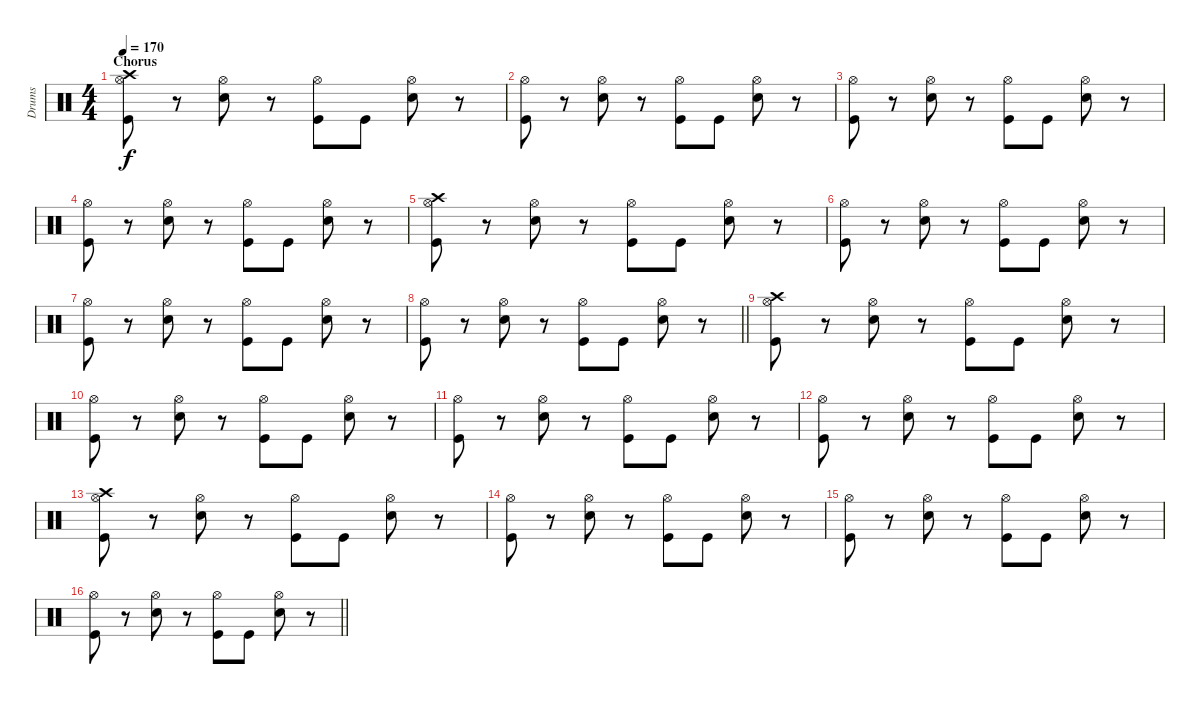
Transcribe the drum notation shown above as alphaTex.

\track ("Drums" "Drums") {instrument percussion}
\staff {score}
\articulation defaults
\ts (4 4)
\section ("" "Chorus")
\tempo 170
\clef neutral
\ks c
("Hi-Hat (open)" "Crash high (hit)" "Kick (hit)").8{dy f} r.8 ("Hi-Hat (open)" "Snare (hit) 2").8 r.8 ("Hi-Hat (open)" "Kick (hit)").8 "Kick (hit)".8 ("Hi-Hat (open)" "Snare (hit) 2").8 r.8 |
("Hi-Hat (open)" "Kick (hit)").8 r.8 ("Hi-Hat (open)" "Snare (hit) 2").8 r.8 ("Hi-Hat (open)" "Kick (hit)").8 "Kick (hit)".8 ("Hi-Hat (open)" "Snare (hit) 2").8 r.8 |
("Hi-Hat (open)" "Kick (hit)").8 r.8 ("Hi-Hat (open)" "Snare (hit) 2").8 r.8 ("Hi-Hat (open)" "Kick (hit)").8 "Kick (hit)".8 ("Hi-Hat (open)" "Snare (hit) 2").8 r.8 |
("Hi-Hat (open)" "Kick (hit)").8 r.8 ("Hi-Hat (open)" "Snare (hit) 2").8 r.8 ("Hi-Hat (open)" "Kick (hit)").8 "Kick (hit)".8 ("Hi-Hat (open)" "Snare (hit) 2").8 r.8 |
("Hi-Hat (open)" "Crash high (hit)" "Kick (hit)").8 r.8 ("Hi-Hat (open)" "Snare (hit) 2").8 r.8 ("Hi-Hat (open)" "Kick (hit)").8 "Kick (hit)".8 ("Hi-Hat (open)" "Snare (hit) 2").8 r.8 |
("Hi-Hat (open)" "Kick (hit)").8 r.8 ("Hi-Hat (open)" "Snare (hit) 2").8 r.8 ("Hi-Hat (open)" "Kick (hit)").8 "Kick (hit)".8 ("Hi-Hat (open)" "Snare (hit) 2").8 r.8 |
("Hi-Hat (open)" "Kick (hit)").8 r.8 ("Hi-Hat (open)" "Snare (hit) 2").8 r.8 ("Hi-Hat (open)" "Kick (hit)").8 "Kick (hit)".8 ("Hi-Hat (open)" "Snare (hit) 2").8 r.8 |
\barLineRight lightlight
("Hi-Hat (open)" "Kick (hit)").8 r.8 ("Hi-Hat (open)" "Snare (hit) 2").8 r.8 ("Hi-Hat (open)" "Kick (hit)").8 "Kick (hit)".8 ("Hi-Hat (open)" "Snare (hit) 2").8 r.8 |
("Hi-Hat (open)" "Crash high (hit)" "Kick (hit)").8 r.8 ("Hi-Hat (open)" "Snare (hit) 2").8 r.8 ("Hi-Hat (open)" "Kick (hit)").8 "Kick (hit)".8 ("Hi-Hat (open)" "Snare (hit) 2").8 r.8 |
("Hi-Hat (open)" "Kick (hit)").8 r.8 ("Hi-Hat (open)" "Snare (hit) 2").8 r.8 ("Hi-Hat (open)" "Kick (hit)").8 "Kick (hit)".8 ("Hi-Hat (open)" "Snare (hit) 2").8 r.8 |
("Hi-Hat (open)" "Kick (hit)").8 r.8 ("Hi-Hat (open)" "Snare (hit) 2").8 r.8 ("Hi-Hat (open)" "Kick (hit)").8 "Kick (hit)".8 ("Hi-Hat (open)" "Snare (hit) 2").8 r.8 |
("Hi-Hat (open)" "Kick (hit)").8 r.8 ("Hi-Hat (open)" "Snare (hit) 2").8 r.8 ("Hi-Hat (open)" "Kick (hit)").8 "Kick (hit)".8 ("Hi-Hat (open)" "Snare (hit) 2").8 r.8 |
("Hi-Hat (open)" "Crash high (hit)" "Kick (hit)").8 r.8 ("Hi-Hat (open)" "Snare (hit) 2").8 r.8 ("Hi-Hat (open)" "Kick (hit)").8 "Kick (hit)".8 ("Hi-Hat (open)" "Snare (hit) 2").8 r.8 |
("Hi-Hat (open)" "Kick (hit)").8 r.8 ("Hi-Hat (open)" "Snare (hit) 2").8 r.8 ("Hi-Hat (open)" "Kick (hit)").8 "Kick (hit)".8 ("Hi-Hat (open)" "Snare (hit) 2").8 r.8 |
("Hi-Hat (open)" "Kick (hit)").8 r.8 ("Hi-Hat (open)" "Snare (hit) 2").8 r.8 ("Hi-Hat (open)" "Kick (hit)").8 "Kick (hit)".8 ("Hi-Hat (open)" "Snare (hit) 2").8 r.8 |
\barLineRight lightlight
("Hi-Hat (open)" "Kick (hit)").8 r.8 ("Hi-Hat (open)" "Snare (hit) 2").8 r.8 ("Hi-Hat (open)" "Kick (hit)").8 "Kick (hit)".8 ("Hi-Hat (open)" "Snare (hit) 2").8 r.8
